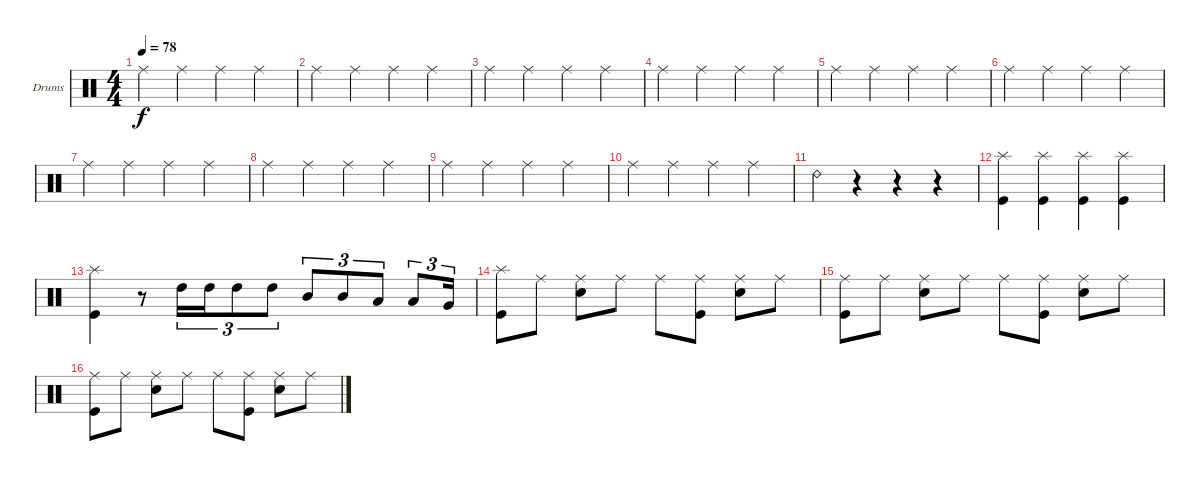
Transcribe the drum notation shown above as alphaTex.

\bracketExtendMode groupsimilarinstruments
\firstSystemTrackNameOrientation horizontal
\otherSystemsTrackNameOrientation horizontal
\track ("Drumkit" "Drums") {instrument percussion}
\staff {score}
\articulation defaults
\ts (4 4)
\beaming (8 2 2 2 2)
\tempo 78
\clef neutral
\ks c "Ride (middle)".4{dy f} "Ride (middle)".4 "Ride (middle)".4 "Ride (middle)".4
|
"Ride (middle)".4 "Ride (middle)".4 "Ride (middle)".4 "Ride (middle)".4 |
"Ride (middle)".4 "Ride (middle)".4 "Ride (middle)".4 "Ride (middle)".4 |
"Ride (middle)".4 "Ride (middle)".4 "Ride (middle)".4 "Ride (middle)".4 |
"Ride (middle)".4 "Ride (middle)".4 "Ride (middle)".4 "Ride (middle)".4 |
"Ride (middle)".4 "Ride (middle)".4 "Ride (middle)".4 "Ride (middle)".4 |
"Ride (middle)".4 "Ride (middle)".4 "Ride (middle)".4 "Ride (middle)".4 |
"Ride (middle)".4 "Ride (middle)".4 "Ride (middle)".4 "Ride (middle)".4 |
"Ride (middle)".4 "Ride (middle)".4 "Ride (middle)".4 "Ride (middle)".4 |
"Ride (middle)".4 "Ride (middle)".4 "Ride (middle)".4 "Ride (middle)".4 |
"Ride (bell) 2".4 r.4 r.4 r.4 |
("Splash (hit)" "Kick (hit)").4 ("Splash (hit)" "Kick (hit)").4 ("Splash (hit)" "Kick (hit)").4 ("Splash (hit)" "Kick (hit)").4 |
("Splash (hit)" "Kick (hit)").4 r.8 "High Tom (hit)".16{tu (3 2)} "High Tom (hit)".16{tu (3 2)} "High Tom (hit)".8{tu (3 2)} "High Tom (hit)".8{tu (3 2)} "Mid Tom (hit)".8{tu (3 2)} "Mid Tom (hit)".8{tu (3 2)} "Low Tom (hit)".8{tu (3 2)} "Low Tom (hit)".8{tu (3 2)} "Very Low Tom (hit)".16{tu (3 2)} |
("Splash (hit)" "Kick (hit)").8 "Ride (middle)".8 ("Ride (middle)" "Snare (hit) 2").8 "Ride (middle)".8 "Ride (middle)".8 ("Ride (middle)" "Kick (hit)").8 ("Ride (middle)" "Snare (hit) 2").8 "Ride (middle)".8 |
("Ride (middle)" "Kick (hit)").8 "Ride (middle)".8 ("Ride (middle)" "Snare (hit) 2").8 "Ride (middle)".8 "Ride (middle)".8 ("Ride (middle)" "Kick (hit)").8 ("Ride (middle)" "Snare (hit) 2").8 "Ride (middle)".8 |
("Ride (middle)" "Kick (hit)").8 "Ride (middle)".8 ("Ride (middle)" "Snare (hit) 2").8 "Ride (middle)".8 "Ride (middle)".8 ("Ride (middle)" "Kick (hit)").8 ("Ride (middle)" "Snare (hit) 2").8 "Ride (middle)".8
